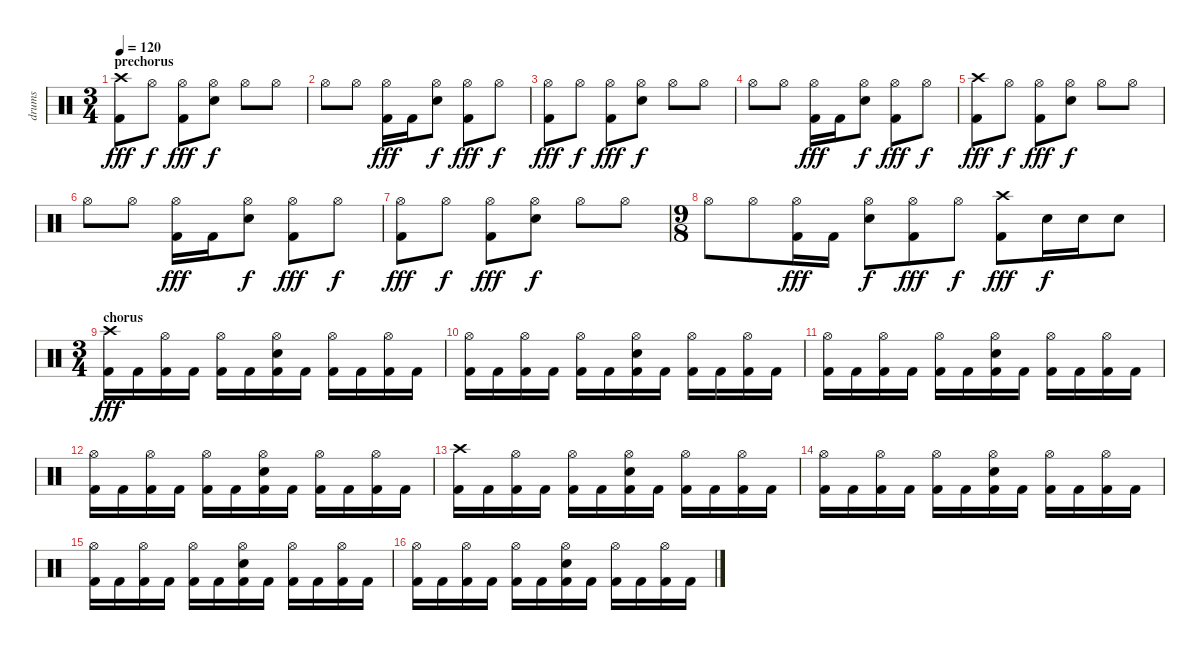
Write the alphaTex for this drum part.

\track ("drums" "drums") {instrument percussion}
\staff {score}
\articulation defaults
\ts (3 4)
\section ("" "prechorus")
\tempo 120
\clef neutral
\ks c
("Crash high (hit)" "Kick (hit) 2").8{dy fff} "Hi-Hat (open)".8{dy f} ("Hi-Hat (open)" "Kick (hit) 2").8{dy fff} ("Hi-Hat (open)" "Snare (hit) 2").8{dy f} "Hi-Hat (open)".8 "Hi-Hat (open)".8 |
"Hi-Hat (open)".8 "Hi-Hat (open)".8 ("Hi-Hat (open)" "Kick (hit) 2").16{dy fff} "Kick (hit) 2".16 ("Hi-Hat (open)" "Snare (hit) 2").8{dy f} ("Hi-Hat (open)" "Kick (hit) 2").8{dy fff} "Hi-Hat (open)".8{dy f} |
("Hi-Hat (open)" "Kick (hit) 2").8{dy fff} "Hi-Hat (open)".8{dy f} ("Hi-Hat (open)" "Kick (hit) 2").8{dy fff} ("Hi-Hat (open)" "Snare (hit) 2").8{dy f} "Hi-Hat (open)".8 "Hi-Hat (open)".8 |
"Hi-Hat (open)".8 "Hi-Hat (open)".8 ("Hi-Hat (open)" "Kick (hit) 2").16{dy fff} "Kick (hit) 2".16 ("Hi-Hat (open)" "Snare (hit) 2").8{dy f} ("Hi-Hat (open)" "Kick (hit) 2").8{dy fff} "Hi-Hat (open)".8{dy f} |
("Crash high (hit)" "Kick (hit) 2").8{dy fff} "Hi-Hat (open)".8{dy f} ("Hi-Hat (open)" "Kick (hit) 2").8{dy fff} ("Hi-Hat (open)" "Snare (hit) 2").8{dy f} "Hi-Hat (open)".8 "Hi-Hat (open)".8 |
"Hi-Hat (open)".8 "Hi-Hat (open)".8 ("Hi-Hat (open)" "Kick (hit) 2").16{dy fff} "Kick (hit) 2".16 ("Hi-Hat (open)" "Snare (hit) 2").8{dy f} ("Hi-Hat (open)" "Kick (hit) 2").8{dy fff} "Hi-Hat (open)".8{dy f} |
("Hi-Hat (open)" "Kick (hit) 2").8{dy fff} "Hi-Hat (open)".8{dy f} ("Hi-Hat (open)" "Kick (hit) 2").8{dy fff} ("Hi-Hat (open)" "Snare (hit) 2").8{dy f} "Hi-Hat (open)".8 "Hi-Hat (open)".8 |
\ts (9 8)
"Hi-Hat (open)".8 "Hi-Hat (open)".8 ("Hi-Hat (open)" "Kick (hit) 2").16{dy fff} "Kick (hit) 2".16 ("Hi-Hat (open)" "Snare (hit) 2").8{dy f} ("Hi-Hat (open)" "Kick (hit) 2").8{dy fff} "Hi-Hat (open)".8{dy f} ("Crash high (hit)" "Kick (hit) 2").8{dy fff} "Snare (hit) 2".16{dy f} "Snare (hit) 2".16 "Snare (hit) 2".8 |
\ts (3 4)
\section ("" "chorus")
("Crash high (hit)" "Kick (hit) 2").16{dy fff} "Kick (hit) 2".16 ("Hi-Hat (open)" "Kick (hit) 2").16 "Kick (hit) 2".16 ("Hi-Hat (open)" "Kick (hit) 2").16 "Kick (hit) 2".16 ("Hi-Hat (open)" "Snare (hit) 2" "Kick (hit) 2").16 "Kick (hit) 2".16 ("Hi-Hat (open)" "Kick (hit) 2").16 "Kick (hit) 2".16 ("Hi-Hat (open)" "Kick (hit) 2").16 "Kick (hit) 2".16 |
("Hi-Hat (open)" "Kick (hit) 2").16 "Kick (hit) 2".16 ("Hi-Hat (open)" "Kick (hit) 2").16 "Kick (hit) 2".16 ("Hi-Hat (open)" "Kick (hit) 2").16 "Kick (hit) 2".16 ("Hi-Hat (open)" "Snare (hit) 2" "Kick (hit) 2").16 "Kick (hit) 2".16 ("Hi-Hat (open)" "Kick (hit) 2").16 "Kick (hit) 2".16 ("Hi-Hat (open)" "Kick (hit) 2").16 "Kick (hit) 2".16 |
("Hi-Hat (open)" "Kick (hit) 2").16 "Kick (hit) 2".16 ("Hi-Hat (open)" "Kick (hit) 2").16 "Kick (hit) 2".16 ("Hi-Hat (open)" "Kick (hit) 2").16 "Kick (hit) 2".16 ("Hi-Hat (open)" "Snare (hit) 2" "Kick (hit) 2").16 "Kick (hit) 2".16 ("Hi-Hat (open)" "Kick (hit) 2").16 "Kick (hit) 2".16 ("Hi-Hat (open)" "Kick (hit) 2").16 "Kick (hit) 2".16 |
("Hi-Hat (open)" "Kick (hit) 2").16 "Kick (hit) 2".16 ("Hi-Hat (open)" "Kick (hit) 2").16 "Kick (hit) 2".16 ("Hi-Hat (open)" "Kick (hit) 2").16 "Kick (hit) 2".16 ("Hi-Hat (open)" "Snare (hit) 2" "Kick (hit) 2").16 "Kick (hit) 2".16 ("Hi-Hat (open)" "Kick (hit) 2").16 "Kick (hit) 2".16 ("Hi-Hat (open)" "Kick (hit) 2").16 "Kick (hit) 2".16 |
("Crash high (hit)" "Kick (hit) 2").16 "Kick (hit) 2".16 ("Hi-Hat (open)" "Kick (hit) 2").16 "Kick (hit) 2".16 ("Hi-Hat (open)" "Kick (hit) 2").16 "Kick (hit) 2".16 ("Hi-Hat (open)" "Snare (hit) 2" "Kick (hit) 2").16 "Kick (hit) 2".16 ("Hi-Hat (open)" "Kick (hit) 2").16 "Kick (hit) 2".16 ("Hi-Hat (open)" "Kick (hit) 2").16 "Kick (hit) 2".16 |
("Hi-Hat (open)" "Kick (hit) 2").16 "Kick (hit) 2".16 ("Hi-Hat (open)" "Kick (hit) 2").16 "Kick (hit) 2".16 ("Hi-Hat (open)" "Kick (hit) 2").16 "Kick (hit) 2".16 ("Hi-Hat (open)" "Snare (hit) 2" "Kick (hit) 2").16 "Kick (hit) 2".16 ("Hi-Hat (open)" "Kick (hit) 2").16 "Kick (hit) 2".16 ("Hi-Hat (open)" "Kick (hit) 2").16 "Kick (hit) 2".16 |
("Hi-Hat (open)" "Kick (hit) 2").16 "Kick (hit) 2".16 ("Hi-Hat (open)" "Kick (hit) 2").16 "Kick (hit) 2".16 ("Hi-Hat (open)" "Kick (hit) 2").16 "Kick (hit) 2".16 ("Hi-Hat (open)" "Snare (hit) 2" "Kick (hit) 2").16 "Kick (hit) 2".16 ("Hi-Hat (open)" "Kick (hit) 2").16 "Kick (hit) 2".16 ("Hi-Hat (open)" "Kick (hit) 2").16 "Kick (hit) 2".16 |
("Hi-Hat (open)" "Kick (hit) 2").16 "Kick (hit) 2".16 ("Hi-Hat (open)" "Kick (hit) 2").16 "Kick (hit) 2".16 ("Hi-Hat (open)" "Kick (hit) 2").16 "Kick (hit) 2".16 ("Hi-Hat (open)" "Snare (hit) 2" "Kick (hit) 2").16 "Kick (hit) 2".16 ("Hi-Hat (open)" "Kick (hit) 2").16 "Kick (hit) 2".16 ("Hi-Hat (open)" "Kick (hit) 2").16 "Kick (hit) 2".16
